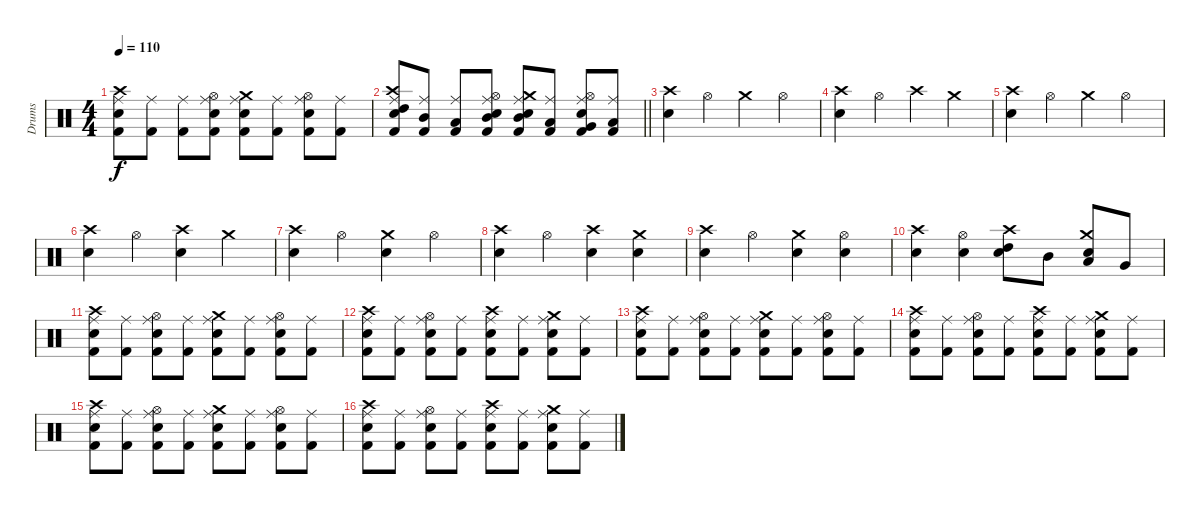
\track ("Drums" "Drums") {instrument percussion}
\staff {score}
\articulation defaults
\ts (4 4)
\tempo 110
\clef neutral
\ks c
("Kick (hit) 2" "Crash high (hit)" "Ride (middle)" "Snare (hit) 2").8{dy f} ("Kick (hit) 2" "Ride (middle)").8 ("Kick (hit) 2" "Ride (middle)").8 ("Kick (hit) 2" "Hi-Hat (open)" "Ride (middle)" "Snare (hit) 2").8 ("Kick (hit) 2" "Crash medium (hit)" "Ride (middle)" "Snare (hit) 2").8 ("Kick (hit) 2" "Ride (middle)").8 ("Kick (hit) 2" "Hi-Hat (open)" "Ride (middle)" "Snare (hit) 2").8 ("Kick (hit) 2" "Ride (middle)").8 |
\barLineRight lightlight
("Kick (hit) 2" "Crash high (hit)" "Ride (middle)" "High Tom (hit)" "Snare (hit) 2").8 ("Kick (hit) 2" "Ride (middle)" "Mid Tom (hit)").8 ("Kick (hit) 2" "Ride (middle)" "Low Tom (hit)").8 ("Kick (hit) 2" "Hi-Hat (open)" "Ride (middle)" "Mid Tom (hit)" "Snare (hit) 2").8 ("Kick (hit) 2" "Crash medium (hit)" "Ride (middle)" "Mid Tom (hit)" "Snare (hit) 2").8 ("Kick (hit) 2" "Ride (middle)" "Low Tom (hit)").8 ("Kick (hit) 2" "Hi-Hat (open)" "Ride (middle)" "Very Low Tom (hit)" "Snare (hit) 2").8 ("Kick (hit) 2" "Ride (middle)" "Low Floor Tom (hit)").8 |
\section ("" "")
("Crash high (hit)" "Snare (hit) 2").4 "Hi-Hat (open)".4 "Crash medium (hit)".4 "Hi-Hat (open)".4 |
("Crash high (hit)" "Snare (hit) 2").4 "Hi-Hat (open)".4 "Crash high (hit)".4 "Crash medium (hit)".4 |
("Crash high (hit)" "Snare (hit) 2").4 "Hi-Hat (open)".4 "Crash medium (hit)".4 "Hi-Hat (open)".4 |
("Crash high (hit)" "Snare (hit) 2").4 "Hi-Hat (open)".4 ("Crash high (hit)" "Snare (hit) 2").4 "Crash medium (hit)".4 |
("Crash high (hit)" "Snare (hit) 2").4 "Hi-Hat (open)".4 ("Crash medium (hit)" "Snare (hit) 2").4 "Hi-Hat (open)".4 |
("Crash high (hit)" "Snare (hit) 2").4 "Hi-Hat (open)".4 ("Crash high (hit)" "Snare (hit) 2").4 ("Crash medium (hit)" "Snare (hit) 2").4 |
("Crash high (hit)" "Snare (hit) 2").4 "Hi-Hat (open)".4 ("Crash medium (hit)" "Snare (hit) 2").4 ("Hi-Hat (open)" "Snare (hit) 2").4 |
("Crash high (hit)" "Snare (hit) 2").4 ("Hi-Hat (open)" "Snare (hit) 2").4 ("Crash high (hit)" "High Tom (hit)" "Snare (hit) 2").8 "Mid Tom (hit)".8 ("Crash medium (hit)" "Low Tom (hit)" "Snare (hit) 2").8 "Very Low Tom (hit)".8 |
("Kick (hit) 2" "Crash high (hit)" "Ride (middle)" "Snare (hit) 2").8 ("Kick (hit) 2" "Ride (middle)").8 ("Kick (hit) 2" "Hi-Hat (open)" "Ride (middle)" "Snare (hit) 2").8 ("Kick (hit) 2" "Ride (middle)").8 ("Kick (hit) 2" "Crash medium (hit)" "Ride (middle)" "Snare (hit) 2").8 ("Kick (hit) 2" "Ride (middle)").8 ("Kick (hit) 2" "Hi-Hat (open)" "Ride (middle)" "Snare (hit) 2").8 ("Kick (hit) 2" "Ride (middle)").8 |
("Kick (hit) 2" "Crash high (hit)" "Ride (middle)" "Snare (hit) 2").8 ("Kick (hit) 2" "Ride (middle)").8 ("Kick (hit) 2" "Hi-Hat (open)" "Ride (middle)" "Snare (hit) 2").8 ("Kick (hit) 2" "Ride (middle)").8 ("Kick (hit) 2" "Crash high (hit)" "Ride (middle)" "Snare (hit) 2").8 ("Kick (hit) 2" "Ride (middle)").8 ("Kick (hit) 2" "Crash medium (hit)" "Ride (middle)" "Snare (hit) 2").8 ("Kick (hit) 2" "Ride (middle)").8 |
("Kick (hit) 2" "Crash high (hit)" "Ride (middle)" "Snare (hit) 2").8 ("Kick (hit) 2" "Ride (middle)").8 ("Kick (hit) 2" "Hi-Hat (open)" "Ride (middle)" "Snare (hit) 2").8 ("Kick (hit) 2" "Ride (middle)").8 ("Kick (hit) 2" "Crash medium (hit)" "Ride (middle)" "Snare (hit) 2").8 ("Kick (hit) 2" "Ride (middle)").8 ("Kick (hit) 2" "Hi-Hat (open)" "Ride (middle)" "Snare (hit) 2").8 ("Kick (hit) 2" "Ride (middle)").8 |
("Kick (hit) 2" "Crash high (hit)" "Ride (middle)" "Snare (hit) 2").8 ("Kick (hit) 2" "Ride (middle)").8 ("Kick (hit) 2" "Hi-Hat (open)" "Ride (middle)" "Snare (hit) 2").8 ("Kick (hit) 2" "Ride (middle)").8 ("Kick (hit) 2" "Crash high (hit)" "Ride (middle)" "Snare (hit) 2").8 ("Kick (hit) 2" "Ride (middle)").8 ("Kick (hit) 2" "Crash medium (hit)" "Ride (middle)" "Snare (hit) 2").8 ("Kick (hit) 2" "Ride (middle)").8 |
("Kick (hit) 2" "Crash high (hit)" "Ride (middle)" "Snare (hit) 2").8 ("Kick (hit) 2" "Ride (middle)").8 ("Kick (hit) 2" "Hi-Hat (open)" "Ride (middle)" "Snare (hit) 2").8 ("Kick (hit) 2" "Ride (middle)").8 ("Kick (hit) 2" "Crash medium (hit)" "Ride (middle)" "Snare (hit) 2").8 ("Kick (hit) 2" "Ride (middle)").8 ("Kick (hit) 2" "Hi-Hat (open)" "Ride (middle)" "Snare (hit) 2").8 ("Kick (hit) 2" "Ride (middle)").8 |
("Kick (hit) 2" "Crash high (hit)" "Ride (middle)" "Snare (hit) 2").8 ("Kick (hit) 2" "Ride (middle)").8 ("Kick (hit) 2" "Hi-Hat (open)" "Ride (middle)" "Snare (hit) 2").8 ("Kick (hit) 2" "Ride (middle)").8 ("Kick (hit) 2" "Crash high (hit)" "Ride (middle)" "Snare (hit) 2").8 ("Kick (hit) 2" "Ride (middle)").8 ("Kick (hit) 2" "Crash medium (hit)" "Ride (middle)" "Snare (hit) 2").8 ("Kick (hit) 2" "Ride (middle)").8
